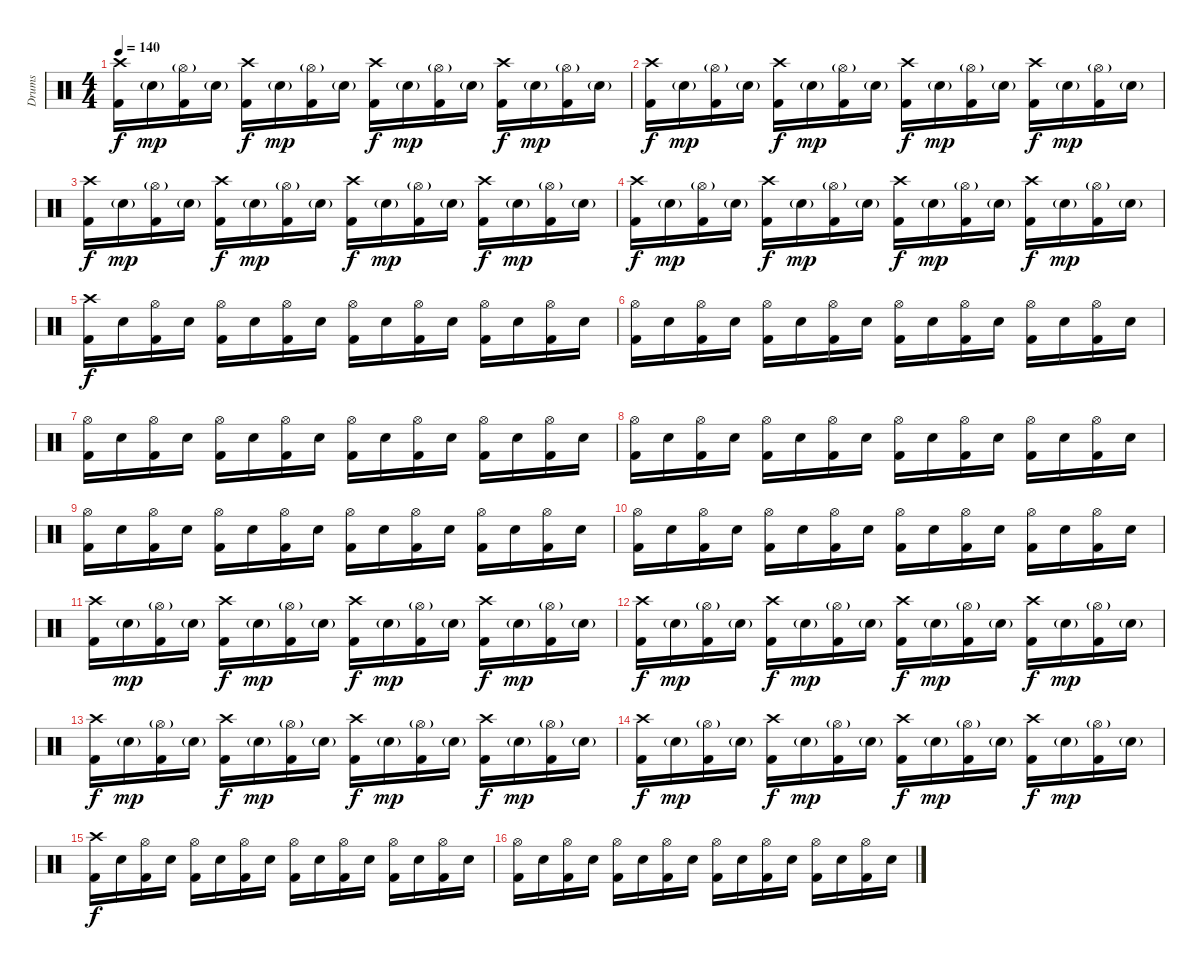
\track ("Drums" "Drums") {instrument percussion}
\staff {score}
\articulation defaults
\ts (4 4)
\tempo 140
\clef neutral
\ks c
("Kick (hit) 2" "Crash high (hit)").16{dy f} "Electric Snare (hit)"{g}.16{dy mp} ("Kick (hit) 2" "Hi-Hat (open)"{g}).16 "Electric Snare (hit)"{g}.16 ("Kick (hit) 2" "Crash high (hit)").16{dy f} "Electric Snare (hit)"{g}.16{dy mp} ("Kick (hit) 2" "Hi-Hat (open)"{g}).16 "Electric Snare (hit)"{g}.16 ("Kick (hit) 2" "Crash high (hit)").16{dy f} "Electric Snare (hit)"{g}.16{dy mp} ("Kick (hit) 2" "Hi-Hat (open)"{g}).16 "Electric Snare (hit)"{g}.16 ("Kick (hit) 2" "Crash high (hit)").16{dy f} "Electric Snare (hit)"{g}.16{dy mp} ("Kick (hit) 2" "Hi-Hat (open)"{g}).16 "Electric Snare (hit)"{g}.16 |
("Kick (hit) 2" "Crash high (hit)").16{dy f} "Electric Snare (hit)"{g}.16{dy mp} ("Kick (hit) 2" "Hi-Hat (open)"{g}).16 "Electric Snare (hit)"{g}.16 ("Kick (hit) 2" "Crash high (hit)").16{dy f} "Electric Snare (hit)"{g}.16{dy mp} ("Kick (hit) 2" "Hi-Hat (open)"{g}).16 "Electric Snare (hit)"{g}.16 ("Kick (hit) 2" "Crash high (hit)").16{dy f} "Electric Snare (hit)"{g}.16{dy mp} ("Kick (hit) 2" "Hi-Hat (open)"{g}).16 "Electric Snare (hit)"{g}.16 ("Kick (hit) 2" "Crash high (hit)").16{dy f} "Electric Snare (hit)"{g}.16{dy mp} ("Kick (hit) 2" "Hi-Hat (open)"{g}).16 "Electric Snare (hit)"{g}.16 |
("Kick (hit) 2" "Crash high (hit)").16{dy f} "Electric Snare (hit)"{g}.16{dy mp} ("Kick (hit) 2" "Hi-Hat (open)"{g}).16 "Electric Snare (hit)"{g}.16 ("Kick (hit) 2" "Crash high (hit)").16{dy f} "Electric Snare (hit)"{g}.16{dy mp} ("Kick (hit) 2" "Hi-Hat (open)"{g}).16 "Electric Snare (hit)"{g}.16 ("Kick (hit) 2" "Crash high (hit)").16{dy f} "Electric Snare (hit)"{g}.16{dy mp} ("Kick (hit) 2" "Hi-Hat (open)"{g}).16 "Electric Snare (hit)"{g}.16 ("Kick (hit) 2" "Crash high (hit)").16{dy f} "Electric Snare (hit)"{g}.16{dy mp} ("Kick (hit) 2" "Hi-Hat (open)"{g}).16 "Electric Snare (hit)"{g}.16 |
("Kick (hit) 2" "Crash high (hit)").16{dy f} "Electric Snare (hit)"{g}.16{dy mp} ("Kick (hit) 2" "Hi-Hat (open)"{g}).16 "Electric Snare (hit)"{g}.16 ("Kick (hit) 2" "Crash high (hit)").16{dy f} "Electric Snare (hit)"{g}.16{dy mp} ("Kick (hit) 2" "Hi-Hat (open)"{g}).16 "Electric Snare (hit)"{g}.16 ("Kick (hit) 2" "Crash high (hit)").16{dy f} "Electric Snare (hit)"{g}.16{dy mp} ("Kick (hit) 2" "Hi-Hat (open)"{g}).16 "Electric Snare (hit)"{g}.16 ("Kick (hit) 2" "Crash high (hit)").16{dy f} "Electric Snare (hit)"{g}.16{dy mp} ("Kick (hit) 2" "Hi-Hat (open)"{g}).16 "Electric Snare (hit)"{g}.16 |
("Kick (hit) 2" "Crash high (hit)").16{dy f} "Electric Snare (hit)".16 ("Kick (hit) 2" "Hi-Hat (open)").16 "Electric Snare (hit)".16 ("Kick (hit) 2" "Hi-Hat (open)").16 "Electric Snare (hit)".16 ("Kick (hit) 2" "Hi-Hat (open)").16 "Electric Snare (hit)".16 ("Kick (hit) 2" "Hi-Hat (open)").16 "Electric Snare (hit)".16 ("Kick (hit) 2" "Hi-Hat (open)").16 "Electric Snare (hit)".16 ("Kick (hit) 2" "Hi-Hat (open)").16 "Electric Snare (hit)".16 ("Kick (hit) 2" "Hi-Hat (open)").16 "Electric Snare (hit)".16 |
("Kick (hit) 2" "Hi-Hat (open)").16 "Electric Snare (hit)".16 ("Kick (hit) 2" "Hi-Hat (open)").16 "Electric Snare (hit)".16 ("Kick (hit) 2" "Hi-Hat (open)").16 "Electric Snare (hit)".16 ("Kick (hit) 2" "Hi-Hat (open)").16 "Electric Snare (hit)".16 ("Kick (hit) 2" "Hi-Hat (open)").16 "Electric Snare (hit)".16 ("Kick (hit) 2" "Hi-Hat (open)").16 "Electric Snare (hit)".16 ("Kick (hit) 2" "Hi-Hat (open)").16 "Electric Snare (hit)".16 ("Kick (hit) 2" "Hi-Hat (open)").16 "Electric Snare (hit)".16 |
("Kick (hit) 2" "Hi-Hat (open)").16 "Electric Snare (hit)".16 ("Kick (hit) 2" "Hi-Hat (open)").16 "Electric Snare (hit)".16 ("Kick (hit) 2" "Hi-Hat (open)").16 "Electric Snare (hit)".16 ("Kick (hit) 2" "Hi-Hat (open)").16 "Electric Snare (hit)".16 ("Kick (hit) 2" "Hi-Hat (open)").16 "Electric Snare (hit)".16 ("Kick (hit) 2" "Hi-Hat (open)").16 "Electric Snare (hit)".16 ("Kick (hit) 2" "Hi-Hat (open)").16 "Electric Snare (hit)".16 ("Kick (hit) 2" "Hi-Hat (open)").16 "Electric Snare (hit)".16 |
("Kick (hit) 2" "Hi-Hat (open)").16 "Electric Snare (hit)".16 ("Kick (hit) 2" "Hi-Hat (open)").16 "Electric Snare (hit)".16 ("Kick (hit) 2" "Hi-Hat (open)").16 "Electric Snare (hit)".16 ("Kick (hit) 2" "Hi-Hat (open)").16 "Electric Snare (hit)".16 ("Kick (hit) 2" "Hi-Hat (open)").16 "Electric Snare (hit)".16 ("Kick (hit) 2" "Hi-Hat (open)").16 "Electric Snare (hit)".16 ("Kick (hit) 2" "Hi-Hat (open)").16 "Electric Snare (hit)".16 ("Kick (hit) 2" "Hi-Hat (open)").16 "Electric Snare (hit)".16 |
("Kick (hit) 2" "Hi-Hat (open)").16 "Electric Snare (hit)".16 ("Kick (hit) 2" "Hi-Hat (open)").16 "Electric Snare (hit)".16 ("Kick (hit) 2" "Hi-Hat (open)").16 "Electric Snare (hit)".16 ("Kick (hit) 2" "Hi-Hat (open)").16 "Electric Snare (hit)".16 ("Kick (hit) 2" "Hi-Hat (open)").16 "Electric Snare (hit)".16 ("Kick (hit) 2" "Hi-Hat (open)").16 "Electric Snare (hit)".16 ("Kick (hit) 2" "Hi-Hat (open)").16 "Electric Snare (hit)".16 ("Kick (hit) 2" "Hi-Hat (open)").16 "Electric Snare (hit)".16 |
("Kick (hit) 2" "Hi-Hat (open)").16 "Electric Snare (hit)".16 ("Kick (hit) 2" "Hi-Hat (open)").16 "Electric Snare (hit)".16 ("Kick (hit) 2" "Hi-Hat (open)").16 "Electric Snare (hit)".16 ("Kick (hit) 2" "Hi-Hat (open)").16 "Electric Snare (hit)".16 ("Kick (hit) 2" "Hi-Hat (open)").16 "Electric Snare (hit)".16 ("Kick (hit) 2" "Hi-Hat (open)").16 "Electric Snare (hit)".16 ("Kick (hit) 2" "Hi-Hat (open)").16 "Electric Snare (hit)".16 ("Kick (hit) 2" "Hi-Hat (open)").16 "Electric Snare (hit)".16 |
("Kick (hit) 2" "Crash high (hit)").16 "Electric Snare (hit)"{g}.16{dy mp} ("Kick (hit) 2" "Hi-Hat (open)"{g}).16 "Electric Snare (hit)"{g}.16 ("Kick (hit) 2" "Crash high (hit)").16{dy f} "Electric Snare (hit)"{g}.16{dy mp} ("Kick (hit) 2" "Hi-Hat (open)"{g}).16 "Electric Snare (hit)"{g}.16 ("Kick (hit) 2" "Crash high (hit)").16{dy f} "Electric Snare (hit)"{g}.16{dy mp} ("Kick (hit) 2" "Hi-Hat (open)"{g}).16 "Electric Snare (hit)"{g}.16 ("Kick (hit) 2" "Crash high (hit)").16{dy f} "Electric Snare (hit)"{g}.16{dy mp} ("Kick (hit) 2" "Hi-Hat (open)"{g}).16 "Electric Snare (hit)"{g}.16 |
("Kick (hit) 2" "Crash high (hit)").16{dy f} "Electric Snare (hit)"{g}.16{dy mp} ("Kick (hit) 2" "Hi-Hat (open)"{g}).16 "Electric Snare (hit)"{g}.16 ("Kick (hit) 2" "Crash high (hit)").16{dy f} "Electric Snare (hit)"{g}.16{dy mp} ("Kick (hit) 2" "Hi-Hat (open)"{g}).16 "Electric Snare (hit)"{g}.16 ("Kick (hit) 2" "Crash high (hit)").16{dy f} "Electric Snare (hit)"{g}.16{dy mp} ("Kick (hit) 2" "Hi-Hat (open)"{g}).16 "Electric Snare (hit)"{g}.16 ("Kick (hit) 2" "Crash high (hit)").16{dy f} "Electric Snare (hit)"{g}.16{dy mp} ("Kick (hit) 2" "Hi-Hat (open)"{g}).16 "Electric Snare (hit)"{g}.16 |
("Kick (hit) 2" "Crash high (hit)").16{dy f} "Electric Snare (hit)"{g}.16{dy mp} ("Kick (hit) 2" "Hi-Hat (open)"{g}).16 "Electric Snare (hit)"{g}.16 ("Kick (hit) 2" "Crash high (hit)").16{dy f} "Electric Snare (hit)"{g}.16{dy mp} ("Kick (hit) 2" "Hi-Hat (open)"{g}).16 "Electric Snare (hit)"{g}.16 ("Kick (hit) 2" "Crash high (hit)").16{dy f} "Electric Snare (hit)"{g}.16{dy mp} ("Kick (hit) 2" "Hi-Hat (open)"{g}).16 "Electric Snare (hit)"{g}.16 ("Kick (hit) 2" "Crash high (hit)").16{dy f} "Electric Snare (hit)"{g}.16{dy mp} ("Kick (hit) 2" "Hi-Hat (open)"{g}).16 "Electric Snare (hit)"{g}.16 |
("Kick (hit) 2" "Crash high (hit)").16{dy f} "Electric Snare (hit)"{g}.16{dy mp} ("Kick (hit) 2" "Hi-Hat (open)"{g}).16 "Electric Snare (hit)"{g}.16 ("Kick (hit) 2" "Crash high (hit)").16{dy f} "Electric Snare (hit)"{g}.16{dy mp} ("Kick (hit) 2" "Hi-Hat (open)"{g}).16 "Electric Snare (hit)"{g}.16 ("Kick (hit) 2" "Crash high (hit)").16{dy f} "Electric Snare (hit)"{g}.16{dy mp} ("Kick (hit) 2" "Hi-Hat (open)"{g}).16 "Electric Snare (hit)"{g}.16 ("Kick (hit) 2" "Crash high (hit)").16{dy f} "Electric Snare (hit)"{g}.16{dy mp} ("Kick (hit) 2" "Hi-Hat (open)"{g}).16 "Electric Snare (hit)"{g}.16 |
("Kick (hit) 2" "Crash high (hit)").16{dy f} "Electric Snare (hit)".16 ("Kick (hit) 2" "Hi-Hat (open)").16 "Electric Snare (hit)".16 ("Kick (hit) 2" "Hi-Hat (open)").16 "Electric Snare (hit)".16 ("Kick (hit) 2" "Hi-Hat (open)").16 "Electric Snare (hit)".16 ("Kick (hit) 2" "Hi-Hat (open)").16 "Electric Snare (hit)".16 ("Kick (hit) 2" "Hi-Hat (open)").16 "Electric Snare (hit)".16 ("Kick (hit) 2" "Hi-Hat (open)").16 "Electric Snare (hit)".16 ("Kick (hit) 2" "Hi-Hat (open)").16 "Electric Snare (hit)".16 |
("Kick (hit) 2" "Hi-Hat (open)").16 "Electric Snare (hit)".16 ("Kick (hit) 2" "Hi-Hat (open)").16 "Electric Snare (hit)".16 ("Kick (hit) 2" "Hi-Hat (open)").16 "Electric Snare (hit)".16 ("Kick (hit) 2" "Hi-Hat (open)").16 "Electric Snare (hit)".16 ("Kick (hit) 2" "Hi-Hat (open)").16 "Electric Snare (hit)".16 ("Kick (hit) 2" "Hi-Hat (open)").16 "Electric Snare (hit)".16 ("Kick (hit) 2" "Hi-Hat (open)").16 "Electric Snare (hit)".16 ("Kick (hit) 2" "Hi-Hat (open)").16 "Electric Snare (hit)".16
